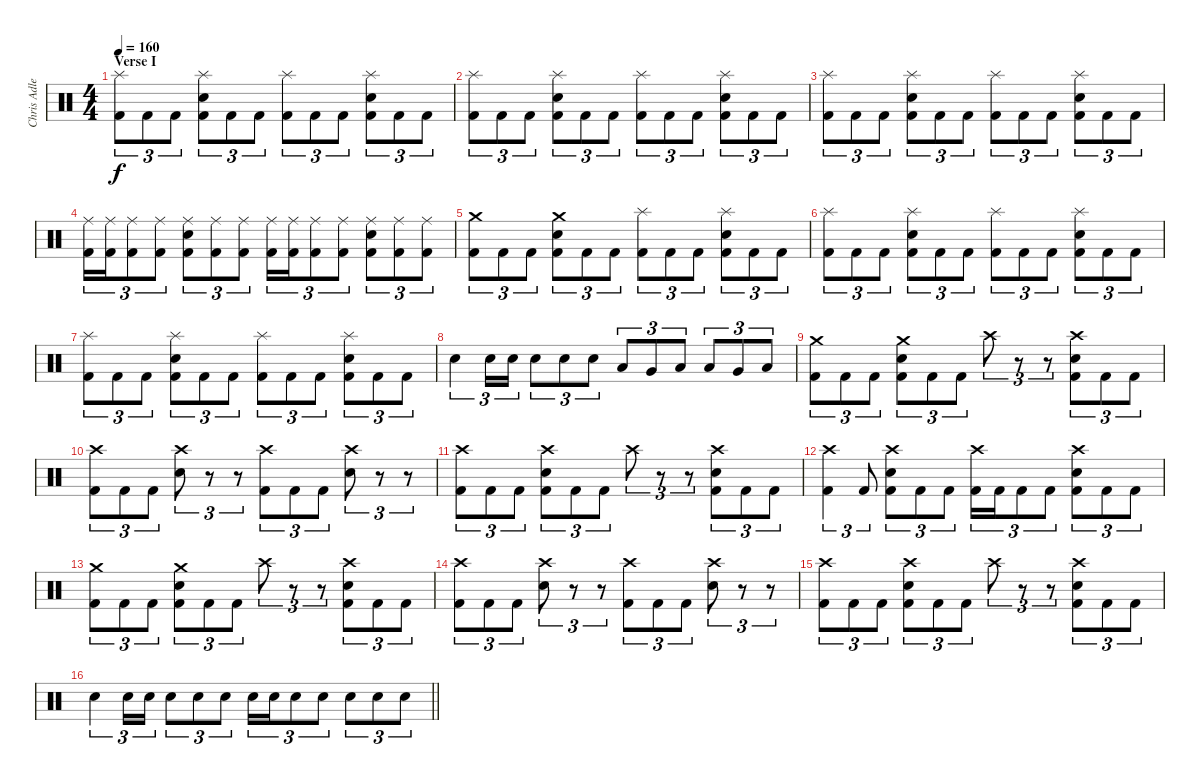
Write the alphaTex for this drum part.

\track ("Chris Adler" "Chris Adle") {instrument percussion}
\staff {score}
\articulation defaults
\ts (4 4)
\section ("" "Verse I")
\tempo 160
\clef neutral
\ks c
("Splash (hit)" "Kick (hit) 2").8{tu (3 2) dy f} "Kick (hit) 2".8{tu (3 2)} "Kick (hit) 2".8{tu (3 2)} ("Splash (hit)" "Snare (hit) 2" "Kick (hit) 2").8{tu (3 2)} "Kick (hit) 2".8{tu (3 2)} "Kick (hit) 2".8{tu (3 2)} ("Splash (hit)" "Kick (hit) 2").8{tu (3 2)} "Kick (hit) 2".8{tu (3 2)} "Kick (hit) 2".8{tu (3 2)} ("Splash (hit)" "Snare (hit) 2" "Kick (hit) 2").8{tu (3 2)} "Kick (hit) 2".8{tu (3 2)} "Kick (hit) 2".8{tu (3 2)} |
("Splash (hit)" "Kick (hit) 2").8{tu (3 2)} "Kick (hit) 2".8{tu (3 2)} "Kick (hit) 2".8{tu (3 2)} ("Splash (hit)" "Snare (hit) 2" "Kick (hit) 2").8{tu (3 2)} "Kick (hit) 2".8{tu (3 2)} "Kick (hit) 2".8{tu (3 2)} ("Splash (hit)" "Kick (hit) 2").8{tu (3 2)} "Kick (hit) 2".8{tu (3 2)} "Kick (hit) 2".8{tu (3 2)} ("Splash (hit)" "Snare (hit) 2" "Kick (hit) 2").8{tu (3 2)} "Kick (hit) 2".8{tu (3 2)} "Kick (hit) 2".8{tu (3 2)} |
("Splash (hit)" "Kick (hit) 2").8{tu (3 2)} "Kick (hit) 2".8{tu (3 2)} "Kick (hit) 2".8{tu (3 2)} ("Splash (hit)" "Snare (hit) 2" "Kick (hit) 2").8{tu (3 2)} "Kick (hit) 2".8{tu (3 2)} "Kick (hit) 2".8{tu (3 2)} ("Splash (hit)" "Kick (hit) 2").8{tu (3 2)} "Kick (hit) 2".8{tu (3 2)} "Kick (hit) 2".8{tu (3 2)} ("Splash (hit)" "Snare (hit) 2" "Kick (hit) 2").8{tu (3 2)} "Kick (hit) 2".8{tu (3 2)} "Kick (hit) 2".8{tu (3 2)} |
("Ride (middle)" "Kick (hit) 2").16{tu (3 2)} ("Ride (middle)" "Kick (hit) 2").16{tu (3 2)} ("Ride (middle)" "Kick (hit) 2").8{tu (3 2)} ("Ride (middle)" "Kick (hit) 2").8{tu (3 2)} ("Ride (middle)" "Snare (hit) 2" "Kick (hit) 2").8{tu (3 2)} ("Ride (middle)" "Kick (hit) 2").8{tu (3 2)} ("Ride (middle)" "Kick (hit) 2").8{tu (3 2)} ("Ride (middle)" "Kick (hit) 2").16{tu (3 2)} ("Ride (middle)" "Kick (hit) 2").16{tu (3 2)} ("Ride (middle)" "Kick (hit) 2").8{tu (3 2)} ("Ride (middle)" "Kick (hit) 2").8{tu (3 2)} ("Ride (middle)" "Snare (hit) 2" "Kick (hit) 2").8{tu (3 2)} ("Ride (middle)" "Kick (hit) 2").8{tu (3 2)} ("Ride (middle)" "Kick (hit) 2").8{tu (3 2)} |
("Crash medium (hit)" "Kick (hit) 2").8{tu (3 2)} "Kick (hit) 2".8{tu (3 2)} "Kick (hit) 2".8{tu (3 2)} ("Crash medium (hit)" "Snare (hit) 2" "Kick (hit) 2").8{tu (3 2)} "Kick (hit) 2".8{tu (3 2)} "Kick (hit) 2".8{tu (3 2)} ("Splash (hit)" "Kick (hit) 2").8{tu (3 2)} "Kick (hit) 2".8{tu (3 2)} "Kick (hit) 2".8{tu (3 2)} ("Splash (hit)" "Snare (hit) 2" "Kick (hit) 2").8{tu (3 2)} "Kick (hit) 2".8{tu (3 2)} "Kick (hit) 2".8{tu (3 2)} |
("Splash (hit)" "Kick (hit) 2").8{tu (3 2)} "Kick (hit) 2".8{tu (3 2)} "Kick (hit) 2".8{tu (3 2)} ("Splash (hit)" "Snare (hit) 2" "Kick (hit) 2").8{tu (3 2)} "Kick (hit) 2".8{tu (3 2)} "Kick (hit) 2".8{tu (3 2)} ("Splash (hit)" "Kick (hit) 2").8{tu (3 2)} "Kick (hit) 2".8{tu (3 2)} "Kick (hit) 2".8{tu (3 2)} ("Splash (hit)" "Snare (hit) 2" "Kick (hit) 2").8{tu (3 2)} "Kick (hit) 2".8{tu (3 2)} "Kick (hit) 2".8{tu (3 2)} |
("Splash (hit)" "Kick (hit) 2").8{tu (3 2)} "Kick (hit) 2".8{tu (3 2)} "Kick (hit) 2".8{tu (3 2)} ("Splash (hit)" "Snare (hit) 2" "Kick (hit) 2").8{tu (3 2)} "Kick (hit) 2".8{tu (3 2)} "Kick (hit) 2".8{tu (3 2)} ("Splash (hit)" "Kick (hit) 2").8{tu (3 2)} "Kick (hit) 2".8{tu (3 2)} "Kick (hit) 2".8{tu (3 2)} ("Splash (hit)" "Snare (hit) 2" "Kick (hit) 2").8{tu (3 2)} "Kick (hit) 2".8{tu (3 2)} "Kick (hit) 2".8{tu (3 2)} |
"Electric Snare (hit)".4{tu (3 2)} "Electric Snare (hit)".16{tu (3 2)} "Electric Snare (hit)".16{tu (3 2)} "Electric Snare (hit)".8{tu (3 2)} "Electric Snare (hit)".8{tu (3 2)} "Electric Snare (hit)".8{tu (3 2)} "Low Tom (hit)".8{tu (3 2)} "Very Low Tom (hit)".8{tu (3 2)} "Low Floor Tom (hit)".8{tu (3 2)} "Low Tom (hit)".8{tu (3 2)} "Very Low Tom (hit)".8{tu (3 2)} "Low Floor Tom (hit)".8{tu (3 2)} |
("Crash medium (hit)" "Kick (hit) 2").8{tu (3 2)} "Kick (hit) 2".8{tu (3 2)} "Kick (hit) 2".8{tu (3 2)} ("Crash medium (hit)" "Snare (hit) 2" "Kick (hit) 2").8{tu (3 2)} "Kick (hit) 2".8{tu (3 2)} "Kick (hit) 2".8{tu (3 2)} "Crash high (hit)".8{tu (3 2)} r.8{tu (3 2)} r.8{tu (3 2)} ("Crash high (hit)" "Snare (hit) 2" "Kick (hit) 2").8{tu (3 2)} "Kick (hit) 2".8{tu (3 2)} "Kick (hit) 2".8{tu (3 2)} |
("Crash high (hit)" "Kick (hit) 2").8{tu (3 2)} "Kick (hit) 2".8{tu (3 2)} "Kick (hit) 2".8{tu (3 2)} ("Crash high (hit)" "Snare (hit) 2").8{tu (3 2)} r.8{tu (3 2)} r.8{tu (3 2)} ("Crash high (hit)" "Kick (hit) 2").8{tu (3 2)} "Kick (hit) 2".8{tu (3 2)} "Kick (hit) 2".8{tu (3 2)} ("Crash high (hit)" "Snare (hit) 2").8{tu (3 2)} r.8{tu (3 2)} r.8{tu (3 2)} |
("Crash high (hit)" "Kick (hit) 2").8{tu (3 2)} "Kick (hit) 2".8{tu (3 2)} "Kick (hit) 2".8{tu (3 2)} ("Crash high (hit)" "Snare (hit) 2" "Kick (hit) 2").8{tu (3 2)} "Kick (hit) 2".8{tu (3 2)} "Kick (hit) 2".8{tu (3 2)} "Crash high (hit)".8{tu (3 2)} r.8{tu (3 2)} r.8{tu (3 2)} ("Crash high (hit)" "Snare (hit) 2" "Kick (hit) 2").8{tu (3 2)} "Kick (hit) 2".8{tu (3 2)} "Kick (hit) 2".8{tu (3 2)} |
("Crash high (hit)" "Kick (hit) 2").4{tu (3 2)} "Kick (hit) 2".8{tu (3 2)} ("Crash high (hit)" "Snare (hit) 2" "Kick (hit) 2").8{tu (3 2)} "Kick (hit) 2".8{tu (3 2)} "Kick (hit) 2".8{tu (3 2)} ("Crash high (hit)" "Kick (hit) 2").16{tu (3 2)} "Kick (hit) 2".16{tu (3 2)} "Kick (hit) 2".8{tu (3 2)} "Kick (hit) 2".8{tu (3 2)} ("Crash high (hit)" "Snare (hit) 2" "Kick (hit) 2").8{tu (3 2)} "Kick (hit) 2".8{tu (3 2)} "Kick (hit) 2".8{tu (3 2)} |
("Crash medium (hit)" "Kick (hit) 2").8{tu (3 2)} "Kick (hit) 2".8{tu (3 2)} "Kick (hit) 2".8{tu (3 2)} ("Crash medium (hit)" "Snare (hit) 2" "Kick (hit) 2").8{tu (3 2)} "Kick (hit) 2".8{tu (3 2)} "Kick (hit) 2".8{tu (3 2)} "Crash high (hit)".8{tu (3 2)} r.8{tu (3 2)} r.8{tu (3 2)} ("Crash high (hit)" "Snare (hit) 2" "Kick (hit) 2").8{tu (3 2)} "Kick (hit) 2".8{tu (3 2)} "Kick (hit) 2".8{tu (3 2)} |
("Crash high (hit)" "Kick (hit) 2").8{tu (3 2)} "Kick (hit) 2".8{tu (3 2)} "Kick (hit) 2".8{tu (3 2)} ("Crash high (hit)" "Snare (hit) 2").8{tu (3 2)} r.8{tu (3 2)} r.8{tu (3 2)} ("Crash high (hit)" "Kick (hit) 2").8{tu (3 2)} "Kick (hit) 2".8{tu (3 2)} "Kick (hit) 2".8{tu (3 2)} ("Crash high (hit)" "Snare (hit) 2").8{tu (3 2)} r.8{tu (3 2)} r.8{tu (3 2)} |
("Crash high (hit)" "Kick (hit) 2").8{tu (3 2)} "Kick (hit) 2".8{tu (3 2)} "Kick (hit) 2".8{tu (3 2)} ("Crash high (hit)" "Snare (hit) 2" "Kick (hit) 2").8{tu (3 2)} "Kick (hit) 2".8{tu (3 2)} "Kick (hit) 2".8{tu (3 2)} "Crash high (hit)".8{tu (3 2)} r.8{tu (3 2)} r.8{tu (3 2)} ("Crash high (hit)" "Snare (hit) 2" "Kick (hit) 2").8{tu (3 2)} "Kick (hit) 2".8{tu (3 2)} "Kick (hit) 2".8{tu (3 2)} |
\barLineRight lightlight "Electric Snare (hit)".4{tu (3 2)} "Electric Snare (hit)".16{tu (3 2)} "Electric Snare (hit)".16{tu (3 2)} "Electric Snare (hit)".8{tu (3 2)} "Electric Snare (hit)".8{tu (3 2)} "Electric Snare (hit)".8{tu (3 2)} "Electric Snare (hit)".16{tu (3 2)} "Electric Snare (hit)".16{tu (3 2)} "Electric Snare (hit)".8{tu (3 2)} "Electric Snare (hit)".8{tu (3 2)} "Electric Snare (hit)".8{tu (3 2)} "Electric Snare (hit)".8{tu (3 2)} "Electric Snare (hit)".8{tu (3 2)}
